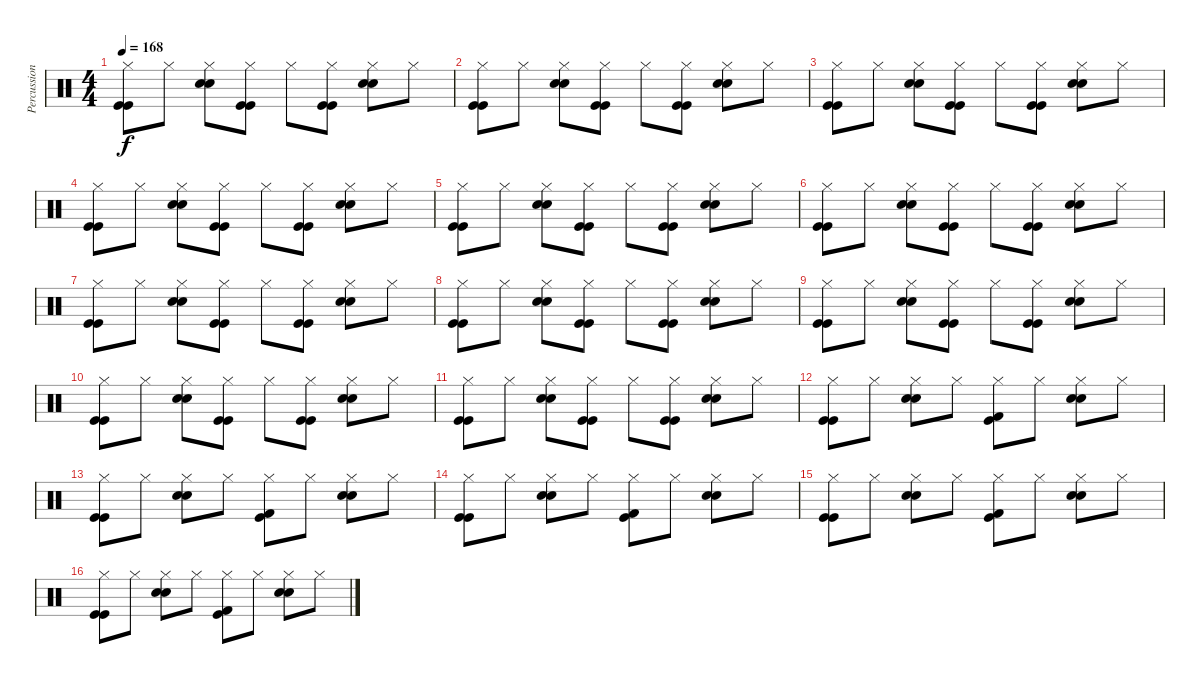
\track ("Percussion" "Percussion") {instrument percussion}
\staff {score}
\articulation defaults
\ts (4 4)
\tempo 168
\clef neutral
\ks c
("Kick (hit)" "Hi-Hat (closed)" "Kick (hit)").8{dy f} "Hi-Hat (closed)".8 ("Snare (hit) 2" "Hi-Hat (closed)" "Snare (hit) 2").8 ("Kick (hit)" "Hi-Hat (closed)" "Kick (hit)").8 "Hi-Hat (closed)".8 ("Kick (hit)" "Hi-Hat (closed)" "Kick (hit)").8 ("Snare (hit) 2" "Hi-Hat (closed)" "Snare (hit) 2").8 "Hi-Hat (closed)".8 |
("Kick (hit)" "Hi-Hat (closed)" "Kick (hit)").8 "Hi-Hat (closed)".8 ("Snare (hit) 2" "Hi-Hat (closed)" "Snare (hit) 2").8 ("Kick (hit)" "Hi-Hat (closed)" "Kick (hit)").8 "Hi-Hat (closed)".8 ("Kick (hit)" "Hi-Hat (closed)" "Kick (hit)").8 ("Snare (hit) 2" "Hi-Hat (closed)" "Snare (hit) 2").8 "Hi-Hat (closed)".8 |
("Kick (hit)" "Hi-Hat (closed)" "Kick (hit)").8 "Hi-Hat (closed)".8 ("Snare (hit) 2" "Hi-Hat (closed)" "Snare (hit) 2").8 ("Kick (hit)" "Hi-Hat (closed)" "Kick (hit)").8 "Hi-Hat (closed)".8 ("Kick (hit)" "Hi-Hat (closed)" "Kick (hit)").8 ("Snare (hit) 2" "Hi-Hat (closed)" "Snare (hit) 2").8 "Hi-Hat (closed)".8 |
("Kick (hit)" "Hi-Hat (closed)" "Kick (hit)").8 "Hi-Hat (closed)".8 ("Snare (hit) 2" "Hi-Hat (closed)" "Snare (hit) 2").8 ("Kick (hit)" "Hi-Hat (closed)" "Kick (hit)").8 "Hi-Hat (closed)".8 ("Kick (hit)" "Hi-Hat (closed)" "Kick (hit)").8 ("Snare (hit) 2" "Hi-Hat (closed)" "Snare (hit) 2").8 "Hi-Hat (closed)".8 |
("Kick (hit)" "Hi-Hat (closed)" "Kick (hit)").8 "Hi-Hat (closed)".8 ("Snare (hit) 2" "Hi-Hat (closed)" "Snare (hit) 2").8 ("Kick (hit)" "Hi-Hat (closed)" "Kick (hit)").8 "Hi-Hat (closed)".8 ("Kick (hit)" "Hi-Hat (closed)" "Kick (hit)").8 ("Snare (hit) 2" "Hi-Hat (closed)" "Snare (hit) 2").8 "Hi-Hat (closed)".8 |
("Kick (hit)" "Hi-Hat (closed)" "Kick (hit)").8 "Hi-Hat (closed)".8 ("Snare (hit) 2" "Hi-Hat (closed)" "Snare (hit) 2").8 ("Kick (hit)" "Hi-Hat (closed)" "Kick (hit)").8 "Hi-Hat (closed)".8 ("Kick (hit)" "Hi-Hat (closed)" "Kick (hit)").8 ("Snare (hit) 2" "Hi-Hat (closed)" "Snare (hit) 2").8 "Hi-Hat (closed)".8 |
("Kick (hit)" "Hi-Hat (closed)" "Kick (hit)").8 "Hi-Hat (closed)".8 ("Snare (hit) 2" "Hi-Hat (closed)" "Snare (hit) 2").8 ("Kick (hit)" "Hi-Hat (closed)" "Kick (hit)").8 "Hi-Hat (closed)".8 ("Kick (hit)" "Hi-Hat (closed)" "Kick (hit)").8 ("Snare (hit) 2" "Hi-Hat (closed)" "Snare (hit) 2").8 "Hi-Hat (closed)".8 |
("Kick (hit)" "Hi-Hat (closed)" "Kick (hit)").8 "Hi-Hat (closed)".8 ("Snare (hit) 2" "Hi-Hat (closed)" "Snare (hit) 2").8 ("Kick (hit)" "Hi-Hat (closed)" "Kick (hit)").8 "Hi-Hat (closed)".8 ("Kick (hit)" "Hi-Hat (closed)" "Kick (hit)").8 ("Snare (hit) 2" "Hi-Hat (closed)" "Snare (hit) 2").8 "Hi-Hat (closed)".8 |
("Kick (hit)" "Hi-Hat (closed)" "Kick (hit)").8 "Hi-Hat (closed)".8 ("Snare (hit) 2" "Hi-Hat (closed)" "Snare (hit) 2").8 ("Kick (hit)" "Hi-Hat (closed)" "Kick (hit)").8 "Hi-Hat (closed)".8 ("Kick (hit)" "Hi-Hat (closed)" "Kick (hit)").8 ("Snare (hit) 2" "Hi-Hat (closed)" "Snare (hit) 2").8 "Hi-Hat (closed)".8 |
("Kick (hit)" "Hi-Hat (closed)" "Kick (hit)").8 "Hi-Hat (closed)".8 ("Snare (hit) 2" "Hi-Hat (closed)" "Snare (hit) 2").8 ("Kick (hit)" "Hi-Hat (closed)" "Kick (hit)").8 "Hi-Hat (closed)".8 ("Kick (hit)" "Hi-Hat (closed)" "Kick (hit)").8 ("Snare (hit) 2" "Hi-Hat (closed)" "Snare (hit) 2").8 "Hi-Hat (closed)".8 |
("Kick (hit)" "Hi-Hat (closed)" "Kick (hit)").8 "Hi-Hat (closed)".8 ("Snare (hit) 2" "Hi-Hat (closed)" "Snare (hit) 2").8 ("Kick (hit)" "Hi-Hat (closed)" "Kick (hit)").8 "Hi-Hat (closed)".8 ("Kick (hit)" "Hi-Hat (closed)" "Kick (hit)").8 ("Snare (hit) 2" "Hi-Hat (closed)" "Snare (hit) 2").8 "Hi-Hat (closed)".8 |
("Kick (hit)" "Hi-Hat (closed)" "Kick (hit)").8 "Hi-Hat (closed)".8 ("Snare (hit) 2" "Hi-Hat (closed)" "Snare (hit) 2").8 "Hi-Hat (closed)".8 ("Kick (hit)" "Hi-Hat (closed)" "Kick (hit) 2").8 "Hi-Hat (closed)".8 ("Snare (hit) 2" "Hi-Hat (closed)" "Snare (hit) 2").8 "Hi-Hat (closed)".8 |
("Kick (hit)" "Hi-Hat (closed)" "Kick (hit)").8 "Hi-Hat (closed)".8 ("Snare (hit) 2" "Hi-Hat (closed)" "Snare (hit) 2").8 "Hi-Hat (closed)".8 ("Kick (hit)" "Hi-Hat (closed)" "Kick (hit) 2").8 "Hi-Hat (closed)".8 ("Snare (hit) 2" "Hi-Hat (closed)" "Snare (hit) 2").8 "Hi-Hat (closed)".8 |
("Kick (hit)" "Hi-Hat (closed)" "Kick (hit)").8 "Hi-Hat (closed)".8 ("Snare (hit) 2" "Hi-Hat (closed)" "Snare (hit) 2").8 "Hi-Hat (closed)".8 ("Kick (hit)" "Hi-Hat (closed)" "Kick (hit) 2").8 "Hi-Hat (closed)".8 ("Snare (hit) 2" "Hi-Hat (closed)" "Snare (hit) 2").8 "Hi-Hat (closed)".8 |
("Kick (hit)" "Hi-Hat (closed)" "Kick (hit)").8 "Hi-Hat (closed)".8 ("Snare (hit) 2" "Hi-Hat (closed)" "Snare (hit) 2").8 "Hi-Hat (closed)".8 ("Kick (hit)" "Hi-Hat (closed)" "Kick (hit) 2").8 "Hi-Hat (closed)".8 ("Snare (hit) 2" "Hi-Hat (closed)" "Snare (hit) 2").8 "Hi-Hat (closed)".8 |
("Kick (hit)" "Hi-Hat (closed)" "Kick (hit)").8 "Hi-Hat (closed)".8 ("Snare (hit) 2" "Hi-Hat (closed)" "Snare (hit) 2").8 "Hi-Hat (closed)".8 ("Kick (hit)" "Hi-Hat (closed)" "Kick (hit) 2").8 "Hi-Hat (closed)".8 ("Snare (hit) 2" "Hi-Hat (closed)" "Snare (hit) 2").8 "Hi-Hat (closed)".8
